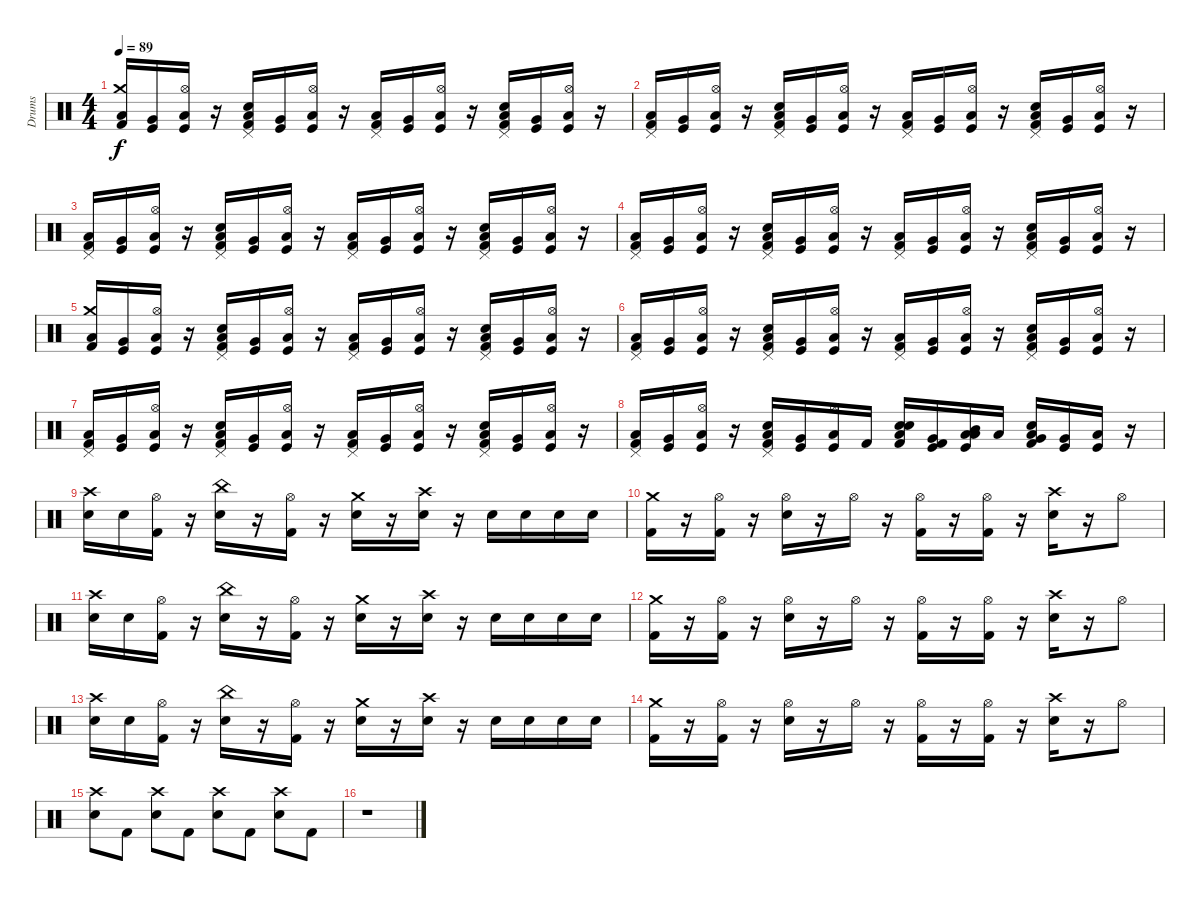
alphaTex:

\track ("Drums" "Drums") {instrument percussion}
\staff {score}
\articulation defaults
\ts (4 4)
\tempo 89
\clef neutral
\ks c
("Kick (hit) 2" "Crash medium (hit)" "Low Tom (hit)").16{dy f} ("Kick (hit)" "Very Low Tom (hit)").16 ("Hi-Hat (open)" "Kick (hit)" "Low Floor Tom (hit)").16 r.16 ("Kick (hit) 2" "Pedal Hi-Hat (hit)" "Snare (hit) 2" "Low Tom (hit)").16 ("Kick (hit)" "Very Low Tom (hit)").16 ("Hi-Hat (open)" "Kick (hit)" "Low Floor Tom (hit)").16 r.16 ("Pedal Hi-Hat (hit)" "Kick (hit) 2" "Low Tom (hit)").16 ("Kick (hit)" "Very Low Tom (hit)").16 ("Hi-Hat (open)" "Kick (hit)" "Low Floor Tom (hit)").16 r.16 ("Kick (hit) 2" "Pedal Hi-Hat (hit)" "Snare (hit) 2" "Low Tom (hit)").16 ("Kick (hit)" "Very Low Tom (hit)").16 ("Hi-Hat (open)" "Kick (hit)" "Low Floor Tom (hit)").16 r.16 |
("Kick (hit) 2" "Pedal Hi-Hat (hit)" "Low Tom (hit)").16 ("Very Low Tom (hit)" "Kick (hit)").16 ("Hi-Hat (open)" "Low Floor Tom (hit)" "Kick (hit)").16 r.16 ("Kick (hit) 2" "Pedal Hi-Hat (hit)" "Snare (hit) 2" "Low Tom (hit)").16 ("Kick (hit)" "Very Low Tom (hit)").16 ("Hi-Hat (open)" "Kick (hit)" "Low Floor Tom (hit)").16 r.16 ("Pedal Hi-Hat (hit)" "Kick (hit) 2" "Low Tom (hit)").16 ("Kick (hit)" "Very Low Tom (hit)").16 ("Hi-Hat (open)" "Kick (hit)" "Low Floor Tom (hit)").16 r.16 ("Kick (hit) 2" "Pedal Hi-Hat (hit)" "Snare (hit) 2" "Low Tom (hit)").16 ("Kick (hit)" "Very Low Tom (hit)").16 ("Hi-Hat (open)" "Kick (hit)" "Low Floor Tom (hit)").16 r.16 |
("Kick (hit) 2" "Pedal Hi-Hat (hit)" "Low Tom (hit)").16 ("Very Low Tom (hit)" "Kick (hit)").16 ("Hi-Hat (open)" "Low Floor Tom (hit)" "Kick (hit)").16 r.16 ("Kick (hit) 2" "Pedal Hi-Hat (hit)" "Snare (hit) 2" "Low Tom (hit)").16 ("Kick (hit)" "Very Low Tom (hit)").16 ("Hi-Hat (open)" "Kick (hit)" "Low Floor Tom (hit)").16 r.16 ("Pedal Hi-Hat (hit)" "Kick (hit) 2" "Low Tom (hit)").16 ("Kick (hit)" "Very Low Tom (hit)").16 ("Hi-Hat (open)" "Kick (hit)" "Low Floor Tom (hit)").16 r.16 ("Kick (hit) 2" "Pedal Hi-Hat (hit)" "Snare (hit) 2" "Low Tom (hit)").16 ("Kick (hit)" "Very Low Tom (hit)").16 ("Hi-Hat (open)" "Kick (hit)" "Low Floor Tom (hit)").16 r.16 |
("Kick (hit) 2" "Pedal Hi-Hat (hit)" "Low Tom (hit)").16 ("Kick (hit)" "Very Low Tom (hit)").16 ("Hi-Hat (open)" "Kick (hit)" "Low Floor Tom (hit)").16 r.16 ("Kick (hit) 2" "Pedal Hi-Hat (hit)" "Snare (hit) 2" "Low Tom (hit)").16 ("Kick (hit)" "Very Low Tom (hit)").16 ("Hi-Hat (open)" "Kick (hit)" "Low Floor Tom (hit)").16 r.16 ("Pedal Hi-Hat (hit)" "Kick (hit) 2" "Low Tom (hit)").16 ("Kick (hit)" "Very Low Tom (hit)").16 ("Hi-Hat (open)" "Kick (hit)" "Low Floor Tom (hit)").16 r.16 ("Kick (hit) 2" "Pedal Hi-Hat (hit)" "Snare (hit) 2" "Low Tom (hit)").16 ("Kick (hit)" "Very Low Tom (hit)").16 ("Hi-Hat (open)" "Kick (hit)" "Low Floor Tom (hit)").16 r.16 |
("Kick (hit) 2" "Crash medium (hit)" "Low Tom (hit)").16 ("Very Low Tom (hit)" "Kick (hit)").16 ("Hi-Hat (open)" "Low Floor Tom (hit)" "Kick (hit)").16 r.16 ("Kick (hit) 2" "Pedal Hi-Hat (hit)" "Snare (hit) 2" "Low Tom (hit)").16 ("Kick (hit)" "Very Low Tom (hit)").16 ("Hi-Hat (open)" "Kick (hit)" "Low Floor Tom (hit)").16 r.16 ("Pedal Hi-Hat (hit)" "Kick (hit) 2" "Low Tom (hit)").16 ("Kick (hit)" "Very Low Tom (hit)").16 ("Hi-Hat (open)" "Kick (hit)" "Low Floor Tom (hit)").16 r.16 ("Kick (hit) 2" "Pedal Hi-Hat (hit)" "Snare (hit) 2" "Low Tom (hit)").16 ("Kick (hit)" "Very Low Tom (hit)").16 ("Hi-Hat (open)" "Kick (hit)" "Low Floor Tom (hit)").16 r.16 |
("Kick (hit) 2" "Pedal Hi-Hat (hit)" "Low Tom (hit)").16 ("Kick (hit)" "Very Low Tom (hit)").16 ("Hi-Hat (open)" "Kick (hit)" "Low Floor Tom (hit)").16 r.16 ("Kick (hit) 2" "Pedal Hi-Hat (hit)" "Snare (hit) 2" "Low Tom (hit)").16 ("Kick (hit)" "Very Low Tom (hit)").16 ("Hi-Hat (open)" "Kick (hit)" "Low Floor Tom (hit)").16 r.16 ("Pedal Hi-Hat (hit)" "Kick (hit) 2" "Low Tom (hit)").16 ("Kick (hit)" "Very Low Tom (hit)").16 ("Hi-Hat (open)" "Kick (hit)" "Low Floor Tom (hit)").16 r.16 ("Kick (hit) 2" "Pedal Hi-Hat (hit)" "Snare (hit) 2" "Low Tom (hit)").16 ("Kick (hit)" "Very Low Tom (hit)").16 ("Hi-Hat (open)" "Kick (hit)" "Low Floor Tom (hit)").16 r.16 |
("Kick (hit) 2" "Pedal Hi-Hat (hit)" "Low Tom (hit)").16 ("Very Low Tom (hit)" "Kick (hit)").16 ("Hi-Hat (open)" "Low Floor Tom (hit)" "Kick (hit)").16 r.16 ("Kick (hit) 2" "Pedal Hi-Hat (hit)" "Snare (hit) 2" "Low Tom (hit)").16 ("Kick (hit)" "Very Low Tom (hit)").16 ("Hi-Hat (open)" "Kick (hit)" "Low Floor Tom (hit)").16 r.16 ("Pedal Hi-Hat (hit)" "Kick (hit) 2" "Low Tom (hit)").16 ("Kick (hit)" "Very Low Tom (hit)").16 ("Hi-Hat (open)" "Kick (hit)" "Low Floor Tom (hit)").16 r.16 ("Kick (hit) 2" "Pedal Hi-Hat (hit)" "Snare (hit) 2" "Low Tom (hit)").16 ("Kick (hit)" "Very Low Tom (hit)").16 ("Hi-Hat (open)" "Kick (hit)" "Low Floor Tom (hit)").16 r.16 |
("Kick (hit) 2" "Pedal Hi-Hat (hit)" "Low Tom (hit)").16 ("Kick (hit)" "Very Low Tom (hit)").16 ("Hi-Hat (open)" "Kick (hit)" "Low Floor Tom (hit)").16 r.16 ("Kick (hit) 2" "Pedal Hi-Hat (hit)" "Snare (hit) 2" "Low Tom (hit)").16 ("Kick (hit)" "Very Low Tom (hit)").16 ("Hi-Hat (open)" "Kick (hit)" "Low Floor Tom (hit)").16 "Kick (hit) 2".16 ("Snare (hit) 2" "Kick (hit) 2" "Low Tom (hit)" "Electric Snare (hit)").16 ("Kick (hit) 2" "Kick (hit)" "Very Low Tom (hit)").16 ("Mid Tom (hit)" "Kick (hit)" "Low Floor Tom (hit)" "Low Tom (hit)").16 "Low Tom (hit)".16 ("Snare (hit)" "Very Low Tom (hit)" "Kick (hit) 2" "Low Tom (hit)").16 ("Very Low Tom (hit)" "Kick (hit)").16 ("Low Floor Tom (hit)" "Kick (hit)").16 r.16 |
("Crash high (hit)" "Snare (hit) 2").16 "Snare (hit) 2".16 ("Hi-Hat (open)" "Kick (hit) 2").16 r.16 ("Snare (hit) 2" "China (hit)").16 r.16 ("Kick (hit) 2" "Hi-Hat (open)").16 r.16 ("Snare (hit) 2" "Crash medium (hit)").16 r.16 ("Crash high (hit)" "Snare (hit) 2").16 r.16 "Snare (hit) 2".16 "Snare (hit) 2".16 "Snare (hit) 2".16 "Snare (hit) 2".16 |
("Kick (hit) 2" "Crash medium (hit)").16 r.16 ("Kick (hit) 2" "Hi-Hat (open)").16 r.16 ("Snare (hit) 2" "Hi-Hat (open)").16 r.16 "Hi-Hat (open)".16 r.16 ("Hi-Hat (open)" "Kick (hit) 2").16 r.16 ("Kick (hit) 2" "Hi-Hat (open)").16 r.16 ("Snare (hit) 2" "Crash high (hit)").16 r.16 "Hi-Hat (open)".8 |
("Snare (hit) 2" "Crash high (hit)").16 "Snare (hit) 2".16 ("Hi-Hat (open)" "Kick (hit) 2").16 r.16 ("China (hit)" "Snare (hit) 2").16 r.16 ("Hi-Hat (open)" "Kick (hit) 2").16 r.16 ("Crash medium (hit)" "Snare (hit) 2").16 r.16 ("Crash high (hit)" "Snare (hit) 2").16 r.16 "Snare (hit) 2".16 "Snare (hit) 2".16 "Snare (hit) 2".16 "Snare (hit) 2".16 |
("Kick (hit) 2" "Crash medium (hit)").16 r.16 ("Hi-Hat (open)" "Kick (hit) 2").16 r.16 ("Hi-Hat (open)" "Snare (hit) 2").16 r.16 "Hi-Hat (open)".16 r.16 ("Hi-Hat (open)" "Kick (hit) 2").16 r.16 ("Hi-Hat (open)" "Kick (hit) 2").16 r.16 ("Crash high (hit)" "Snare (hit) 2").16 r.16 "Hi-Hat (open)".8 |
("Snare (hit) 2" "Crash high (hit)").16 "Snare (hit) 2".16 ("Hi-Hat (open)" "Kick (hit) 2").16 r.16 ("China (hit)" "Snare (hit) 2").16 r.16 ("Hi-Hat (open)" "Kick (hit) 2").16 r.16 ("Crash medium (hit)" "Snare (hit) 2").16 r.16 ("Crash high (hit)" "Snare (hit) 2").16 r.16 "Snare (hit) 2".16 "Snare (hit) 2".16 "Snare (hit) 2".16 "Snare (hit) 2".16 |
("Crash medium (hit)" "Kick (hit) 2").16 r.16 ("Hi-Hat (open)" "Kick (hit) 2").16 r.16 ("Hi-Hat (open)" "Snare (hit) 2").16 r.16 "Hi-Hat (open)".16 r.16 ("Kick (hit) 2" "Hi-Hat (open)").16 r.16 ("Hi-Hat (open)" "Kick (hit) 2").16 r.16 ("Crash high (hit)" "Snare (hit) 2").16 r.16 "Hi-Hat (open)".8 |
("Crash high (hit)" "Snare (hit) 2").8 "Kick (hit) 2".8 ("Crash high (hit)" "Snare (hit) 2").8 "Kick (hit) 2".8 ("Snare (hit) 2" "Crash high (hit)").8 "Kick (hit) 2".8 ("Crash high (hit)" "Snare (hit) 2").8 "Kick (hit) 2".8 |
r.1
